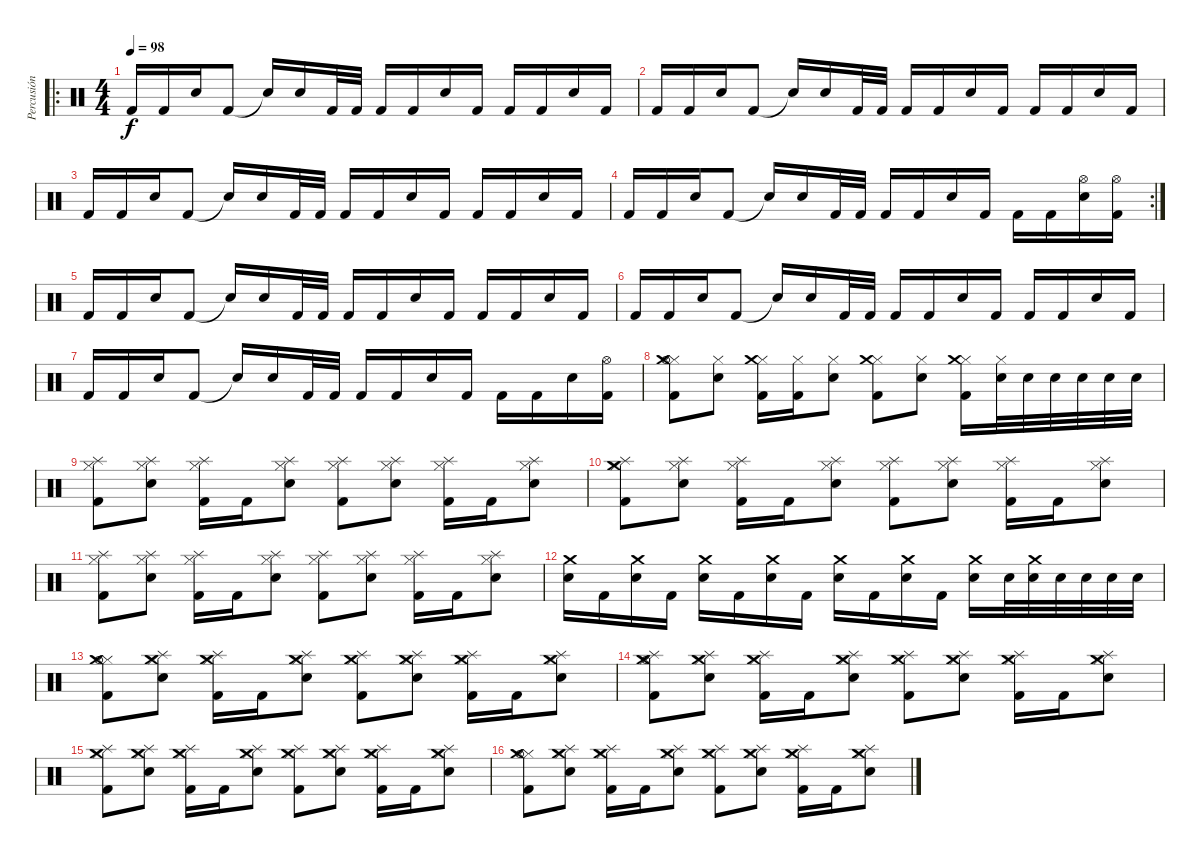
\track ("Percusión" "Percusión") {instrument percussion}
\staff {score}
\articulation defaults
\ro
\ts (4 4)
\tempo 98
\clef neutral
\ks c "Kick (hit) 2".16{dy f} "Kick (hit) 2".16 "Snare (hit) 2".16 "Kick (hit) 2".8 "Snare (hit) 2"{t}.16 "Snare (hit) 2".16 "Kick (hit) 2".32 "Kick (hit) 2".32 "Kick (hit) 2".16 "Kick (hit) 2".16 "Snare (hit) 2".16 "Kick (hit) 2".16 "Kick (hit) 2".16 "Kick (hit) 2".16 "Snare (hit) 2".16 "Kick (hit) 2".16
|
"Kick (hit) 2".16 "Kick (hit) 2".16 "Snare (hit) 2".16 "Kick (hit) 2".8 "Snare (hit) 2"{t}.16 "Snare (hit) 2".16 "Kick (hit) 2".32 "Kick (hit) 2".32 "Kick (hit) 2".16 "Kick (hit) 2".16 "Snare (hit) 2".16 "Kick (hit) 2".16 "Kick (hit) 2".16 "Kick (hit) 2".16 "Snare (hit) 2".16 "Kick (hit) 2".16 |
"Kick (hit) 2".16 "Kick (hit) 2".16 "Snare (hit) 2".16 "Kick (hit) 2".8 "Snare (hit) 2"{t}.16 "Snare (hit) 2".16 "Kick (hit) 2".32 "Kick (hit) 2".32 "Kick (hit) 2".16 "Kick (hit) 2".16 "Snare (hit) 2".16 "Kick (hit) 2".16 "Kick (hit) 2".16 "Kick (hit) 2".16 "Snare (hit) 2".16 "Kick (hit) 2".16 |
\rc 2 "Kick (hit) 2".16 "Kick (hit) 2".16 "Snare (hit) 2".16 "Kick (hit) 2".8 "Snare (hit) 2"{t}.16 "Snare (hit) 2".16 "Kick (hit) 2".32 "Kick (hit) 2".32 "Kick (hit) 2".16 "Kick (hit) 2".16 "Snare (hit) 2".16 "Kick (hit) 2".16 "Kick (hit) 2".16 "Kick (hit) 2".16
("Hi-Hat (open)" "Snare (hit) 2").16 ("Hi-Hat (open)" "Kick (hit) 2").16 |
"Kick (hit) 2".16 "Kick (hit) 2".16 "Snare (hit) 2".16 "Kick (hit) 2".8 "Snare (hit) 2"{t}.16 "Snare (hit) 2".16 "Kick (hit) 2".32 "Kick (hit) 2".32 "Kick (hit) 2".16 "Kick (hit) 2".16 "Snare (hit) 2".16 "Kick (hit) 2".16 "Kick (hit) 2".16 "Kick (hit) 2".16 "Snare (hit) 2".16 "Kick (hit) 2".16 |
"Kick (hit) 2".16 "Kick (hit) 2".16 "Snare (hit) 2".16 "Kick (hit) 2".8 "Snare (hit) 2"{t}.16 "Snare (hit) 2".16 "Kick (hit) 2".32 "Kick (hit) 2".32 "Kick (hit) 2".16 "Kick (hit) 2".16 "Snare (hit) 2".16 "Kick (hit) 2".16 "Kick (hit) 2".16 "Kick (hit) 2".16 "Snare (hit) 2".16 "Kick (hit) 2".16 |
"Kick (hit) 2".16 "Kick (hit) 2".16 "Snare (hit) 2".16 "Kick (hit) 2".8 "Snare (hit) 2"{t}.16 "Snare (hit) 2".16 "Kick (hit) 2".32 "Kick (hit) 2".32 "Kick (hit) 2".16 "Kick (hit) 2".16 "Snare (hit) 2".16 "Kick (hit) 2".16 "Kick (hit) 2".16 "Kick (hit) 2".16 "Snare (hit) 2".16 ("Hi-Hat (open)" "Kick (hit) 2").16 |
("Hi-Hat (closed)" "Crash medium (hit)" "Hi-Hat (open)" "Kick (hit) 2").8 ("Hi-Hat (closed)" "Snare (hit) 2").8 ("Hi-Hat (closed)" "Crash medium (hit)" "Kick (hit) 2").16 ("Hi-Hat (closed)" "Kick (hit) 2").16 ("Hi-Hat (closed)" "Snare (hit) 2").8 ("Hi-Hat (closed)" "Crash medium (hit)" "Kick (hit) 2").8 ("Hi-Hat (closed)" "Snare (hit) 2").8 ("Hi-Hat (closed)" "Crash medium (hit)" "Kick (hit) 2").16 ("Hi-Hat (closed)" "Snare (hit) 2").32 "Snare (hit) 2".32 "Snare (hit) 2".32 "Snare (hit) 2".32 "Snare (hit) 2".32 "Snare (hit) 2".32 |
("Hi-Hat (closed)" "Splash (hit)" "Kick (hit) 2").8 ("Hi-Hat (closed)" "Splash (hit)" "Snare (hit) 2").8 ("Hi-Hat (closed)" "Splash (hit)" "Kick (hit) 2").16 "Kick (hit) 2".16 ("Hi-Hat (closed)" "Splash (hit)" "Snare (hit) 2").8 ("Hi-Hat (closed)" "Splash (hit)" "Kick (hit) 2").8 ("Hi-Hat (closed)" "Splash (hit)" "Snare (hit) 2").8 ("Hi-Hat (closed)" "Splash (hit)" "Kick (hit) 2").16 "Kick (hit) 2".16 ("Hi-Hat (closed)" "Splash (hit)" "Snare (hit) 2").8 |
("Hi-Hat (closed)" "Splash (hit)" "Crash medium (hit)" "Kick (hit) 2").8 ("Hi-Hat (closed)" "Splash (hit)" "Snare (hit) 2").8 ("Hi-Hat (closed)" "Splash (hit)" "Kick (hit) 2").16 "Kick (hit) 2".16 ("Hi-Hat (closed)" "Splash (hit)" "Snare (hit) 2").8 ("Hi-Hat (closed)" "Splash (hit)" "Kick (hit) 2").8 ("Hi-Hat (closed)" "Splash (hit)" "Snare (hit) 2").8 ("Hi-Hat (closed)" "Splash (hit)" "Kick (hit) 2").16 "Kick (hit) 2".16 ("Hi-Hat (closed)" "Splash (hit)" "Snare (hit) 2").8 |
("Hi-Hat (closed)" "Splash (hit)" "Kick (hit) 2").8 ("Hi-Hat (closed)" "Splash (hit)" "Snare (hit) 2").8 ("Hi-Hat (closed)" "Splash (hit)" "Kick (hit) 2").16 "Kick (hit) 2".16 ("Hi-Hat (closed)" "Splash (hit)" "Snare (hit) 2").8 ("Hi-Hat (closed)" "Splash (hit)" "Kick (hit) 2").8 ("Hi-Hat (closed)" "Splash (hit)" "Snare (hit) 2").8 ("Hi-Hat (closed)" "Splash (hit)" "Kick (hit) 2").16 "Kick (hit) 2".16 ("Hi-Hat (closed)" "Splash (hit)" "Snare (hit) 2").8 |
("Crash medium (hit)" "Snare (hit) 2").16 "Kick (hit) 2".16 ("Crash medium (hit)" "Snare (hit) 2").16 "Kick (hit) 2".16 ("Crash medium (hit)" "Snare (hit) 2").16 "Kick (hit) 2".16 ("Crash medium (hit)" "Snare (hit) 2").16 "Kick (hit) 2".16 ("Crash medium (hit)" "Snare (hit) 2").16 "Kick (hit) 2".16 ("Crash medium (hit)" "Snare (hit) 2").16 "Kick (hit) 2".16 ("Crash medium (hit)" "Snare (hit) 2").16 "Snare (hit) 2".32 ("Crash medium (hit)" "Snare (hit) 2").32 "Snare (hit) 2".32 "Snare (hit) 2".32 "Snare (hit) 2".32 "Snare (hit) 2".32 |
("Hi-Hat (closed)" "Crash medium (hit)" "Hi-Hat (open)" "Kick (hit) 2").8 ("Hi-Hat (closed)" "Crash medium (hit)" "Splash (hit)" "Snare (hit) 2").8 ("Hi-Hat (closed)" "Crash medium (hit)" "Splash (hit)" "Kick (hit) 2").16 "Kick (hit) 2".16 ("Hi-Hat (closed)" "Crash medium (hit)" "Splash (hit)" "Snare (hit) 2").8 ("Hi-Hat (closed)" "Crash medium (hit)" "Splash (hit)" "Kick (hit) 2").8 ("Hi-Hat (closed)" "Crash medium (hit)" "Splash (hit)" "Snare (hit) 2").8 ("Hi-Hat (closed)" "Crash medium (hit)" "Splash (hit)" "Kick (hit) 2").16 "Kick (hit) 2".16 ("Hi-Hat (closed)" "Crash medium (hit)" "Splash (hit)" "Snare (hit) 2").8 |
("Hi-Hat (closed)" "Crash medium (hit)" "Hi-Hat (open)" "Splash (hit)" "Kick (hit) 2").8 ("Hi-Hat (closed)" "Crash medium (hit)" "Splash (hit)" "Snare (hit) 2").8 ("Hi-Hat (closed)" "Crash medium (hit)" "Splash (hit)" "Kick (hit) 2").16 "Kick (hit) 2".16 ("Hi-Hat (closed)" "Crash medium (hit)" "Splash (hit)" "Snare (hit) 2").8 ("Hi-Hat (closed)" "Crash medium (hit)" "Splash (hit)" "Kick (hit) 2").8 ("Hi-Hat (closed)" "Crash medium (hit)" "Splash (hit)" "Snare (hit) 2").8 ("Hi-Hat (closed)" "Crash medium (hit)" "Splash (hit)" "Kick (hit) 2").16 "Kick (hit) 2".16 ("Hi-Hat (closed)" "Crash medium (hit)" "Splash (hit)" "Snare (hit) 2").8 |
("Hi-Hat (closed)" "Crash medium (hit)" "Splash (hit)" "Kick (hit) 2").8 ("Hi-Hat (closed)" "Crash medium (hit)" "Splash (hit)" "Snare (hit) 2").8 ("Hi-Hat (closed)" "Crash medium (hit)" "Splash (hit)" "Kick (hit) 2").16 "Kick (hit) 2".16 ("Hi-Hat (closed)" "Crash medium (hit)" "Splash (hit)" "Snare (hit) 2").8 ("Hi-Hat (closed)" "Crash medium (hit)" "Splash (hit)" "Kick (hit) 2").8 ("Hi-Hat (closed)" "Crash medium (hit)" "Splash (hit)" "Snare (hit) 2").8 ("Hi-Hat (closed)" "Crash medium (hit)" "Splash (hit)" "Kick (hit) 2").16 "Kick (hit) 2".16 ("Hi-Hat (closed)" "Crash medium (hit)" "Splash (hit)" "Snare (hit) 2").8 |
("Hi-Hat (closed)" "Crash medium (hit)" "Hi-Hat (open)" "Kick (hit) 2").8 ("Hi-Hat (closed)" "Crash medium (hit)" "Splash (hit)" "Snare (hit) 2").8 ("Hi-Hat (closed)" "Crash medium (hit)" "Splash (hit)" "Kick (hit) 2").16 "Kick (hit) 2".16 ("Hi-Hat (closed)" "Crash medium (hit)" "Splash (hit)" "Snare (hit) 2").8 ("Hi-Hat (closed)" "Crash medium (hit)" "Splash (hit)" "Kick (hit) 2").8 ("Hi-Hat (closed)" "Crash medium (hit)" "Splash (hit)" "Snare (hit) 2").8 ("Hi-Hat (closed)" "Crash medium (hit)" "Splash (hit)" "Kick (hit) 2").16 "Kick (hit) 2".16 ("Hi-Hat (closed)" "Crash medium (hit)" "Splash (hit)" "Snare (hit) 2").8
